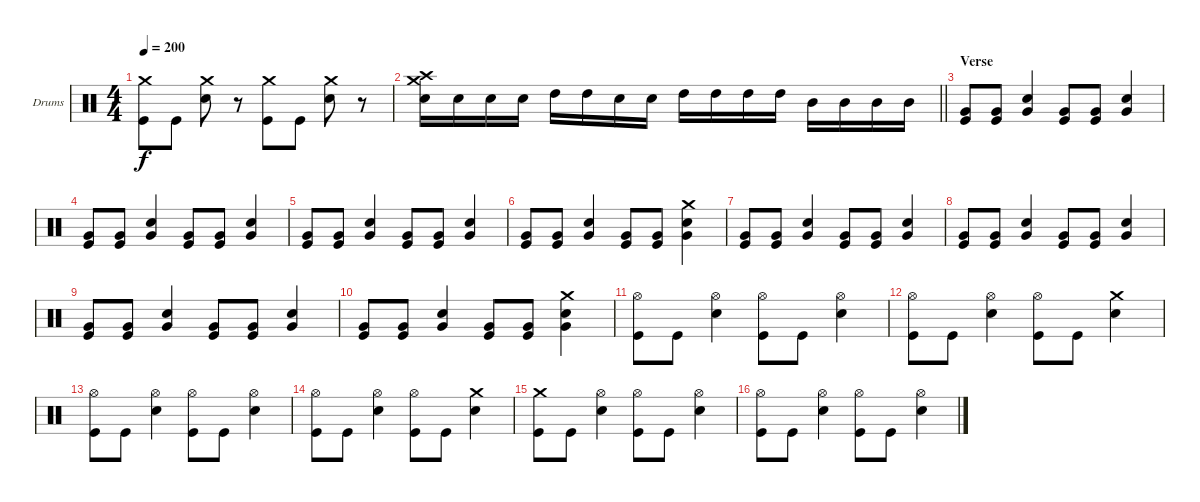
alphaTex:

\bracketExtendMode groupsimilarinstruments
\firstSystemTrackNameOrientation horizontal
\otherSystemsTrackNameOrientation horizontal
\track ("Drumkit" "Drums") {instrument percussion}
\staff {score}
\articulation defaults
\ts (4 4)
\tempo 200
\clef neutral
\ks c
("Crash medium (hit)" "Kick (hit)").8{dy f} "Kick (hit)".8 ("Crash medium (hit)" "Snare (hit) 2").8 r.8 ("Crash medium (hit)" "Kick (hit)").8 "Kick (hit)".8 ("Crash medium (hit)" "Snare (hit) 2").8 r.8 |
\barLineRight lightlight
("Crash medium (hit)" "Crash high (hit)" "Snare (hit) 2").16 "Snare (hit) 2".16 "Snare (hit) 2".16 "Snare (hit) 2".16 "High Tom (hit)".16 "High Tom (hit)".16 "Snare (hit) 2".16 "Snare (hit) 2".16 "High Tom (hit)".16 "High Tom (hit)".16 "High Tom (hit)".16 "High Tom (hit)".16 "Mid Tom (hit)".16 "Mid Tom (hit)".16 "Mid Tom (hit)".16 "Mid Tom (hit)".16 |
\section ("" "Verse")
("Kick (hit)" "Very Low Tom (hit)").8 ("Kick (hit)" "Very Low Tom (hit)").8 ("Snare (hit) 2" "Very Low Tom (hit)").4 ("Kick (hit)" "Very Low Tom (hit)").8 ("Kick (hit)" "Very Low Tom (hit)").8 ("Snare (hit) 2" "Very Low Tom (hit)").4 |
("Kick (hit)" "Very Low Tom (hit)").8 ("Kick (hit)" "Very Low Tom (hit)").8 ("Snare (hit) 2" "Very Low Tom (hit)").4 ("Kick (hit)" "Very Low Tom (hit)").8 ("Kick (hit)" "Very Low Tom (hit)").8 ("Snare (hit) 2" "Very Low Tom (hit)").4 |
("Kick (hit)" "Very Low Tom (hit)").8 ("Kick (hit)" "Very Low Tom (hit)").8 ("Snare (hit) 2" "Very Low Tom (hit)").4 ("Kick (hit)" "Very Low Tom (hit)").8 ("Kick (hit)" "Very Low Tom (hit)").8 ("Snare (hit) 2" "Very Low Tom (hit)").4 |
("Kick (hit)" "Very Low Tom (hit)").8 ("Kick (hit)" "Very Low Tom (hit)").8 ("Snare (hit) 2" "Very Low Tom (hit)").4 ("Kick (hit)" "Very Low Tom (hit)").8 ("Kick (hit)" "Very Low Tom (hit)").8 ("Snare (hit) 2" "Very Low Tom (hit)" "Crash medium (hit)").4 |
("Kick (hit)" "Very Low Tom (hit)").8 ("Kick (hit)" "Very Low Tom (hit)").8 ("Snare (hit) 2" "Very Low Tom (hit)").4 ("Kick (hit)" "Very Low Tom (hit)").8 ("Kick (hit)" "Very Low Tom (hit)").8 ("Snare (hit) 2" "Very Low Tom (hit)").4 |
("Kick (hit)" "Very Low Tom (hit)").8 ("Kick (hit)" "Very Low Tom (hit)").8 ("Snare (hit) 2" "Very Low Tom (hit)").4 ("Kick (hit)" "Very Low Tom (hit)").8 ("Kick (hit)" "Very Low Tom (hit)").8 ("Snare (hit) 2" "Very Low Tom (hit)").4 |
("Kick (hit)" "Very Low Tom (hit)").8 ("Kick (hit)" "Very Low Tom (hit)").8 ("Snare (hit) 2" "Very Low Tom (hit)").4 ("Kick (hit)" "Very Low Tom (hit)").8 ("Kick (hit)" "Very Low Tom (hit)").8 ("Snare (hit) 2" "Very Low Tom (hit)").4 |
("Kick (hit)" "Very Low Tom (hit)").8 ("Kick (hit)" "Very Low Tom (hit)").8 ("Snare (hit) 2" "Very Low Tom (hit)").4 ("Kick (hit)" "Very Low Tom (hit)").8 ("Kick (hit)" "Very Low Tom (hit)").8 ("Snare (hit) 2" "Very Low Tom (hit)" "Crash medium (hit)").4 |
("Hi-Hat (open)" "Kick (hit)").8 "Kick (hit)".8 ("Hi-Hat (open)" "Snare (hit) 2").4 ("Hi-Hat (open)" "Kick (hit)").8 "Kick (hit)".8 ("Hi-Hat (open)" "Snare (hit) 2").4 |
("Hi-Hat (open)" "Kick (hit)").8 "Kick (hit)".8 ("Hi-Hat (open)" "Snare (hit) 2").4 ("Hi-Hat (open)" "Kick (hit)").8 "Kick (hit)".8 ("Snare (hit) 2" "Crash medium (hit)").4 |
("Hi-Hat (open)" "Kick (hit)").8 "Kick (hit)".8 ("Hi-Hat (open)" "Snare (hit) 2").4 ("Hi-Hat (open)" "Kick (hit)").8 "Kick (hit)".8 ("Hi-Hat (open)" "Snare (hit) 2").4 |
("Hi-Hat (open)" "Kick (hit)").8 "Kick (hit)".8 ("Hi-Hat (open)" "Snare (hit) 2").4 ("Hi-Hat (open)" "Kick (hit)").8 "Kick (hit)".8 ("Snare (hit) 2" "Crash medium (hit)").4 |
("Kick (hit)" "Crash medium (hit)").8 "Kick (hit)".8 ("Hi-Hat (open)" "Snare (hit) 2").4 ("Hi-Hat (open)" "Kick (hit)").8 "Kick (hit)".8 ("Hi-Hat (open)" "Snare (hit) 2").4 |
("Hi-Hat (open)" "Kick (hit)").8 "Kick (hit)".8 ("Hi-Hat (open)" "Snare (hit) 2").4 ("Hi-Hat (open)" "Kick (hit)").8 "Kick (hit)".8 ("Hi-Hat (open)" "Snare (hit) 2").4
